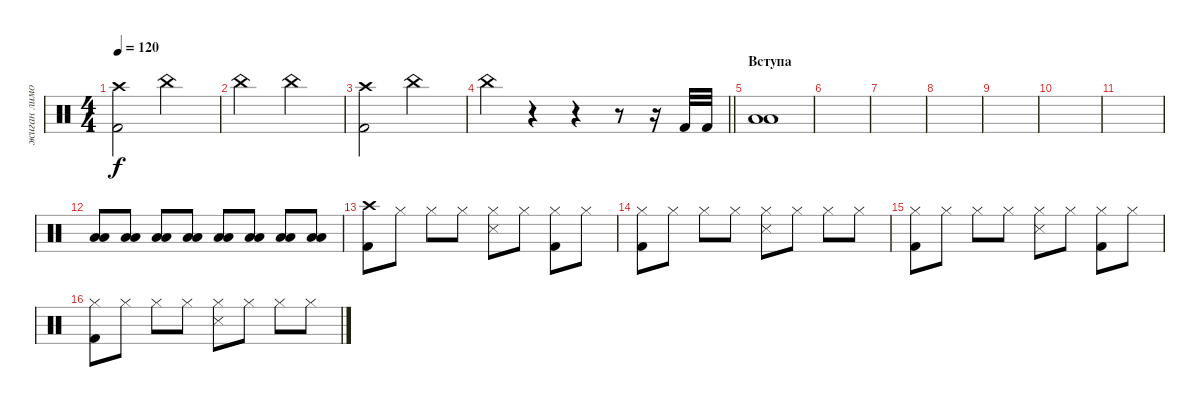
\track ("жиган лимон" "жиган лимо") {instrument percussion}
\staff {score}
\articulation defaults
\ts (4 4)
\tempo 120
\clef neutral
\ks c
("Kick (hit) 2" "Crash high (hit)").2{dy f} "China (hit)".2 |
"China (hit)".2 "China (hit)".2 |
("Crash high (hit)" "Kick (hit) 2").2 "China (hit)".2 |
\barLineRight lightlight "China (hit)".4
r.4 r.4 r.8 r.16 "Kick (hit) 2".32 "Kick (hit) 2".32 |
\section ("" "Вступа")
("Low Tom (hit)" "Low Floor Tom (hit)").1 |
|
|
|
|
|
|
("Low Tom (hit)" "Low Floor Tom (hit)").8{volume 13} ("Low Tom (hit)" "Low Floor Tom (hit)").8 ("Low Tom (hit)" "Low Floor Tom (hit)").8 ("Low Tom (hit)" "Low Floor Tom (hit)").8 ("Low Tom (hit)" "Low Floor Tom (hit)").8 ("Low Tom (hit)" "Low Floor Tom (hit)").8 ("Low Tom (hit)" "Low Floor Tom (hit)").8 ("Low Tom (hit)" "Low Floor Tom (hit)").8 |
("Crash high (hit)" "Kick (hit) 2").8 "Hi-Hat (closed)".8 "Hi-Hat (closed)".8 "Hi-Hat (closed)".8 ("Hi-Hat (closed)" "Snare (side stick) 3").8 "Hi-Hat (closed)".8 ("Hi-Hat (closed)" "Kick (hit) 2").8 "Hi-Hat (closed)".8 |
("Hi-Hat (closed)" "Kick (hit) 2").8 "Hi-Hat (closed)".8 "Hi-Hat (closed)".8 "Hi-Hat (closed)".8 ("Hi-Hat (closed)" "Snare (side stick) 3").8 "Hi-Hat (closed)".8 "Hi-Hat (closed)".8 "Hi-Hat (closed)".8 |
("Hi-Hat (closed)" "Kick (hit) 2").8 "Hi-Hat (closed)".8 "Hi-Hat (closed)".8 "Hi-Hat (closed)".8 ("Hi-Hat (closed)" "Snare (side stick) 3").8 "Hi-Hat (closed)".8 ("Hi-Hat (closed)" "Kick (hit) 2").8 "Hi-Hat (closed)".8 |
("Hi-Hat (closed)" "Kick (hit) 2").8 "Hi-Hat (closed)".8 "Hi-Hat (closed)".8 "Hi-Hat (closed)".8 ("Hi-Hat (closed)" "Snare (side stick) 3").8 "Hi-Hat (closed)".8 "Hi-Hat (closed)".8 "Hi-Hat (closed)".8
